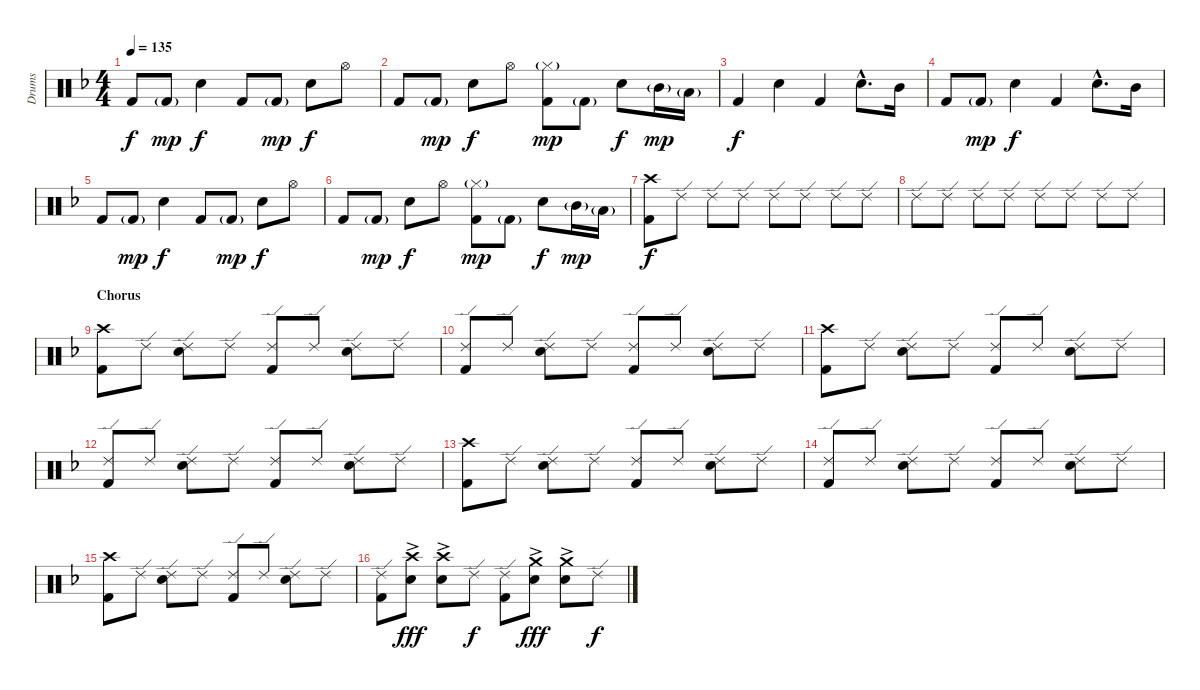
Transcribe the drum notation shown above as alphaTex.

\track ("Drums" "Drums") {instrument percussion}
\staff {score}
\articulation defaults
\ts (4 4)
\tempo 135
\clef neutral
\ks f "Kick (hit) 2".8{dy f} "Kick (hit) 2"{g}.8{dy mp} "Electric Snare (hit)".4{dy f} "Kick (hit) 2".8 "Kick (hit) 2"{g}.8{dy mp} "Electric Snare (hit)".8{dy f} "Hi-Hat (open)".8
|
"Kick (hit) 2".8 "Kick (hit) 2"{g}.8{dy mp} "Electric Snare (hit)".8{dy f} "Hi-Hat (open)".8 ("Hi-Hat (closed)"{g} "Kick (hit) 2").8{dy mp} "Kick (hit) 2"{g}.8 "Electric Snare (hit)".8{dy f} "Mid Tom (hit)"{g}.16{dy mp} "Low Tom (hit)"{g}.16 |
"Kick (hit) 2".4{dy f} "Electric Snare (hit)".4 "Kick (hit) 2".4 "Electric Snare (hit)"{hac}.8{d} "Mid Tom (hit)".16 |
"Kick (hit) 2".8 "Kick (hit) 2"{g}.8{dy mp} "Electric Snare (hit)".4{dy f} "Kick (hit) 2".4 "Electric Snare (hit)"{hac}.8{d} "Mid Tom (hit)".16 |
"Kick (hit) 2".8 "Kick (hit) 2"{g}.8{dy mp} "Electric Snare (hit)".4{dy f} "Kick (hit) 2".8 "Kick (hit) 2"{g}.8{dy mp} "Electric Snare (hit)".8{dy f} "Hi-Hat (open)".8 |
"Kick (hit) 2".8 "Kick (hit) 2"{g}.8{dy mp} "Electric Snare (hit)".8{dy f} "Hi-Hat (open)".8 ("Hi-Hat (closed)"{g} "Kick (hit) 2").8{dy mp} "Kick (hit) 2"{g}.8 "Electric Snare (hit)".8{dy f} "Mid Tom (hit)"{g}.16{dy mp} "Low Tom (hit)"{g}.16 |
("Crash high (hit)" "Kick (hit) 2").8{dy f} "Ride (edge) 2".8 "Ride (edge) 2".8 "Ride (edge) 2".8 "Ride (edge) 2".8 "Ride (edge) 2".8 "Ride (edge) 2".8 "Ride (edge) 2".8 |
"Ride (edge) 2".8 "Ride (edge) 2".8 "Ride (edge) 2".8 "Ride (edge) 2".8 "Ride (edge) 2".8 "Ride (edge) 2".8 "Ride (edge) 2".8 "Ride (edge) 2".8 |
\section ("" "Chorus")
("Crash high (hit)" "Kick (hit) 2").8 "Ride (edge) 2".8 ("Ride (edge) 2" "Electric Snare (hit)").8 "Ride (edge) 2".8 ("Ride (edge) 2" "Kick (hit) 2").8 "Ride (edge) 2".8 ("Ride (edge) 2" "Electric Snare (hit)").8 "Ride (edge) 2".8 |
("Ride (edge) 2" "Kick (hit) 2").8 "Ride (edge) 2".8 ("Ride (edge) 2" "Electric Snare (hit)").8 "Ride (edge) 2".8 ("Ride (edge) 2" "Kick (hit) 2").8 "Ride (edge) 2".8 ("Ride (edge) 2" "Electric Snare (hit)").8 "Ride (edge) 2".8 |
("Crash high (hit)" "Kick (hit) 2").8 "Ride (edge) 2".8 ("Ride (edge) 2" "Electric Snare (hit)").8 "Ride (edge) 2".8 ("Ride (edge) 2" "Kick (hit) 2").8 "Ride (edge) 2".8 ("Ride (edge) 2" "Electric Snare (hit)").8 "Ride (edge) 2".8 |
("Ride (edge) 2" "Kick (hit) 2").8 "Ride (edge) 2".8 ("Ride (edge) 2" "Electric Snare (hit)").8 "Ride (edge) 2".8 ("Ride (edge) 2" "Kick (hit) 2").8 "Ride (edge) 2".8 ("Ride (edge) 2" "Electric Snare (hit)").8 "Ride (edge) 2".8 |
("Crash high (hit)" "Kick (hit) 2").8 "Ride (edge) 2".8 ("Ride (edge) 2" "Electric Snare (hit)").8 "Ride (edge) 2".8 ("Ride (edge) 2" "Kick (hit) 2").8 "Ride (edge) 2".8 ("Ride (edge) 2" "Electric Snare (hit)").8 "Ride (edge) 2".8 |
("Ride (edge) 2" "Kick (hit) 2").8 "Ride (edge) 2".8 ("Ride (edge) 2" "Electric Snare (hit)").8 "Ride (edge) 2".8 ("Ride (edge) 2" "Kick (hit) 2").8 "Ride (edge) 2".8 ("Ride (edge) 2" "Electric Snare (hit)").8 "Ride (edge) 2".8 |
("Crash high (hit)" "Kick (hit) 2").8 "Ride (edge) 2".8 ("Ride (edge) 2" "Electric Snare (hit)").8 "Ride (edge) 2".8 ("Ride (edge) 2" "Kick (hit) 2").8 "Ride (edge) 2".8 ("Ride (edge) 2" "Electric Snare (hit)").8 "Ride (edge) 2".8 |
("Ride (edge) 2" "Kick (hit) 2").8 ("Crash high (hit)" "Electric Snare (hit)"{ac}).8{dy fff} ("Crash high (hit)" "Electric Snare (hit)"{ac}).8 "Ride (edge) 2".8{dy f} ("Ride (edge) 2" "Kick (hit) 2").8 ("Crash medium (hit)" "Electric Snare (hit)"{ac}).8{dy fff} ("Crash medium (hit)" "Electric Snare (hit)"{ac}).8 "Ride (edge) 2".8{dy f}
